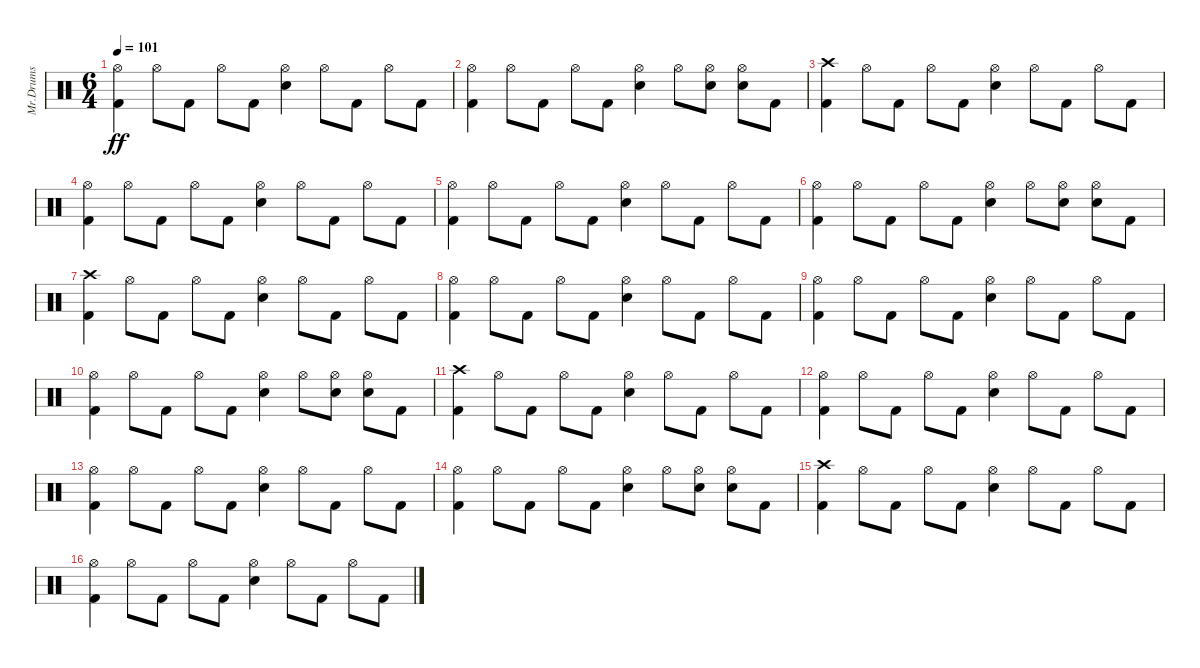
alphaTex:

\track ("Mr.Drums" "Mr.Drums") {instrument percussion}
\staff {score}
\articulation defaults
\ts (6 4)
\tempo 101
\clef neutral
\ks c
("Hi-Hat (open)" "Kick (hit) 2").4{dy ff} "Hi-Hat (open)".8 "Kick (hit) 2".8 "Hi-Hat (open)".8 "Kick (hit) 2".8 ("Hi-Hat (open)" "Electric Snare (hit)").4 "Hi-Hat (open)".8 "Kick (hit) 2".8 "Hi-Hat (open)".8 "Kick (hit) 2".8 |
("Hi-Hat (open)" "Kick (hit) 2").4 "Hi-Hat (open)".8 "Kick (hit) 2".8 "Hi-Hat (open)".8 "Kick (hit) 2".8 ("Hi-Hat (open)" "Electric Snare (hit)").4 "Hi-Hat (open)".8 ("Hi-Hat (open)" "Electric Snare (hit)").8 ("Hi-Hat (open)" "Electric Snare (hit)").8 "Kick (hit) 2".8 |
("Crash high (hit)" "Kick (hit) 2").4 "Hi-Hat (open)".8 "Kick (hit) 2".8 "Hi-Hat (open)".8 "Kick (hit) 2".8 ("Hi-Hat (open)" "Electric Snare (hit)").4 "Hi-Hat (open)".8 "Kick (hit) 2".8 "Hi-Hat (open)".8 "Kick (hit) 2".8 |
("Hi-Hat (open)" "Kick (hit) 2").4 "Hi-Hat (open)".8 "Kick (hit) 2".8 "Hi-Hat (open)".8 "Kick (hit) 2".8 ("Hi-Hat (open)" "Electric Snare (hit)").4 "Hi-Hat (open)".8 "Kick (hit) 2".8 "Hi-Hat (open)".8 "Kick (hit) 2".8 |
("Hi-Hat (open)" "Kick (hit) 2").4 "Hi-Hat (open)".8 "Kick (hit) 2".8 "Hi-Hat (open)".8 "Kick (hit) 2".8 ("Hi-Hat (open)" "Electric Snare (hit)").4 "Hi-Hat (open)".8 "Kick (hit) 2".8 "Hi-Hat (open)".8 "Kick (hit) 2".8 |
("Hi-Hat (open)" "Kick (hit) 2").4 "Hi-Hat (open)".8 "Kick (hit) 2".8 "Hi-Hat (open)".8 "Kick (hit) 2".8 ("Hi-Hat (open)" "Electric Snare (hit)").4 "Hi-Hat (open)".8 ("Hi-Hat (open)" "Electric Snare (hit)").8 ("Hi-Hat (open)" "Electric Snare (hit)").8 "Kick (hit) 2".8 |
("Crash high (hit)" "Kick (hit) 2").4 "Hi-Hat (open)".8 "Kick (hit) 2".8 "Hi-Hat (open)".8 "Kick (hit) 2".8 ("Hi-Hat (open)" "Electric Snare (hit)").4 "Hi-Hat (open)".8 "Kick (hit) 2".8 "Hi-Hat (open)".8 "Kick (hit) 2".8 |
("Hi-Hat (open)" "Kick (hit) 2").4 "Hi-Hat (open)".8 "Kick (hit) 2".8 "Hi-Hat (open)".8 "Kick (hit) 2".8 ("Hi-Hat (open)" "Electric Snare (hit)").4 "Hi-Hat (open)".8 "Kick (hit) 2".8 "Hi-Hat (open)".8 "Kick (hit) 2".8 |
("Hi-Hat (open)" "Kick (hit) 2").4 "Hi-Hat (open)".8 "Kick (hit) 2".8 "Hi-Hat (open)".8 "Kick (hit) 2".8 ("Hi-Hat (open)" "Electric Snare (hit)").4 "Hi-Hat (open)".8 "Kick (hit) 2".8 "Hi-Hat (open)".8 "Kick (hit) 2".8 |
("Hi-Hat (open)" "Kick (hit) 2").4 "Hi-Hat (open)".8 "Kick (hit) 2".8 "Hi-Hat (open)".8 "Kick (hit) 2".8 ("Hi-Hat (open)" "Electric Snare (hit)").4 "Hi-Hat (open)".8 ("Hi-Hat (open)" "Electric Snare (hit)").8 ("Hi-Hat (open)" "Electric Snare (hit)").8 "Kick (hit) 2".8 |
("Crash high (hit)" "Kick (hit) 2").4 "Hi-Hat (open)".8 "Kick (hit) 2".8 "Hi-Hat (open)".8 "Kick (hit) 2".8 ("Hi-Hat (open)" "Electric Snare (hit)").4 "Hi-Hat (open)".8 "Kick (hit) 2".8 "Hi-Hat (open)".8 "Kick (hit) 2".8 |
("Hi-Hat (open)" "Kick (hit) 2").4 "Hi-Hat (open)".8 "Kick (hit) 2".8 "Hi-Hat (open)".8 "Kick (hit) 2".8 ("Hi-Hat (open)" "Electric Snare (hit)").4 "Hi-Hat (open)".8 "Kick (hit) 2".8 "Hi-Hat (open)".8 "Kick (hit) 2".8 |
("Hi-Hat (open)" "Kick (hit) 2").4 "Hi-Hat (open)".8 "Kick (hit) 2".8 "Hi-Hat (open)".8 "Kick (hit) 2".8 ("Hi-Hat (open)" "Electric Snare (hit)").4 "Hi-Hat (open)".8 "Kick (hit) 2".8 "Hi-Hat (open)".8 "Kick (hit) 2".8 |
("Hi-Hat (open)" "Kick (hit) 2").4 "Hi-Hat (open)".8 "Kick (hit) 2".8 "Hi-Hat (open)".8 "Kick (hit) 2".8 ("Hi-Hat (open)" "Electric Snare (hit)").4 "Hi-Hat (open)".8 ("Hi-Hat (open)" "Electric Snare (hit)").8 ("Hi-Hat (open)" "Electric Snare (hit)").8 "Kick (hit) 2".8 |
("Crash high (hit)" "Kick (hit) 2").4 "Hi-Hat (open)".8 "Kick (hit) 2".8 "Hi-Hat (open)".8 "Kick (hit) 2".8 ("Hi-Hat (open)" "Electric Snare (hit)").4 "Hi-Hat (open)".8 "Kick (hit) 2".8 "Hi-Hat (open)".8 "Kick (hit) 2".8 |
("Hi-Hat (open)" "Kick (hit) 2").4 "Hi-Hat (open)".8 "Kick (hit) 2".8 "Hi-Hat (open)".8 "Kick (hit) 2".8 ("Hi-Hat (open)" "Electric Snare (hit)").4 "Hi-Hat (open)".8 "Kick (hit) 2".8 "Hi-Hat (open)".8 "Kick (hit) 2".8
